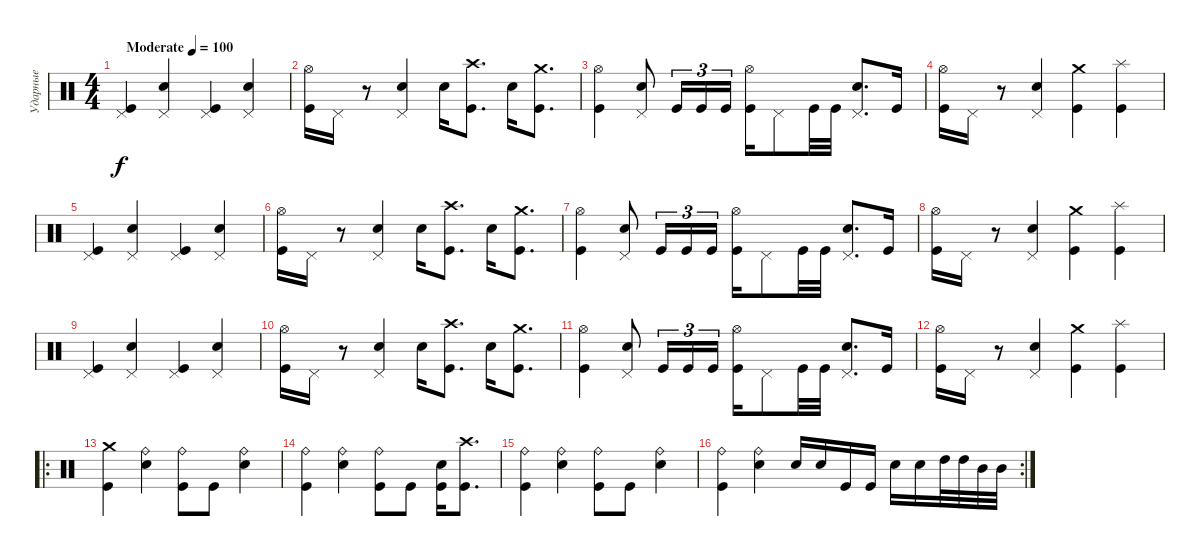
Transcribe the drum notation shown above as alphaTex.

\track ("Ударные" "Ударные") {instrument percussion}
\staff {score}
\articulation defaults
\ts (4 4)
\tempo (100 "Moderate")
\clef neutral
\ks c
("Pedal Hi-Hat (hit)" "Kick (hit)").4{dy f} ("Pedal Hi-Hat (hit)" "Electric Snare (hit)").4 ("Pedal Hi-Hat (hit)" "Kick (hit)").4 ("Pedal Hi-Hat (hit)" "Electric Snare (hit)").4 |
("Hi-Hat (open)" "Kick (hit)").16 "Pedal Hi-Hat (hit)".16 r.8 ("Pedal Hi-Hat (hit)" "Electric Snare (hit)").4 "Electric Snare (hit)".16 ("Crash high (hit)" "Kick (hit)").8{d} "Electric Snare (hit)".16 ("Crash medium (hit)" "Kick (hit)").8{d} |
("Hi-Hat (open)" "Kick (hit)").4 ("Pedal Hi-Hat (hit)" "Electric Snare (hit)").8 "Kick (hit)".16{tu (3 2)} "Kick (hit)".16{tu (3 2)} "Kick (hit)".16{tu (3 2)} ("Hi-Hat (open)" "Kick (hit)").16 "Pedal Hi-Hat (hit)".8 "Kick (hit)".32 "Kick (hit)".32 ("Pedal Hi-Hat (hit)" "Electric Snare (hit)").8{d} "Kick (hit)".16 |
("Hi-Hat (open)" "Kick (hit)").16 "Pedal Hi-Hat (hit)".16 r.8 ("Pedal Hi-Hat (hit)" "Electric Snare (hit)").4 ("Crash medium (hit)" "Kick (hit)").4 ("Splash (hit)" "Kick (hit)").4 |
("Pedal Hi-Hat (hit)" "Kick (hit)").4 ("Pedal Hi-Hat (hit)" "Electric Snare (hit)").4 ("Pedal Hi-Hat (hit)" "Kick (hit)").4 ("Pedal Hi-Hat (hit)" "Electric Snare (hit)").4 |
("Hi-Hat (open)" "Kick (hit)").16 "Pedal Hi-Hat (hit)".16 r.8 ("Pedal Hi-Hat (hit)" "Electric Snare (hit)").4 "Electric Snare (hit)".16 ("Crash high (hit)" "Kick (hit)").8{d} "Electric Snare (hit)".16 ("Crash medium (hit)" "Kick (hit)").8{d} |
("Hi-Hat (open)" "Kick (hit)").4 ("Pedal Hi-Hat (hit)" "Electric Snare (hit)").8 "Kick (hit)".16{tu (3 2)} "Kick (hit)".16{tu (3 2)} "Kick (hit)".16{tu (3 2)} ("Hi-Hat (open)" "Kick (hit)").16 "Pedal Hi-Hat (hit)".8 "Kick (hit)".32 "Kick (hit)".32 ("Pedal Hi-Hat (hit)" "Electric Snare (hit)").8{d} "Kick (hit)".16 |
("Hi-Hat (open)" "Kick (hit)").16 "Pedal Hi-Hat (hit)".16 r.8 ("Pedal Hi-Hat (hit)" "Electric Snare (hit)").4 ("Crash medium (hit)" "Kick (hit)").4 ("Splash (hit)" "Kick (hit)").4 |
("Pedal Hi-Hat (hit)" "Kick (hit)").4 ("Pedal Hi-Hat (hit)" "Electric Snare (hit)").4 ("Pedal Hi-Hat (hit)" "Kick (hit)").4 ("Pedal Hi-Hat (hit)" "Electric Snare (hit)").4 |
("Hi-Hat (open)" "Kick (hit)").16 "Pedal Hi-Hat (hit)".16 r.8 ("Pedal Hi-Hat (hit)" "Electric Snare (hit)").4 "Electric Snare (hit)".16 ("Crash high (hit)" "Kick (hit)").8{d} "Electric Snare (hit)".16 ("Crash medium (hit)" "Kick (hit)").8{d} |
("Hi-Hat (open)" "Kick (hit)").4 ("Pedal Hi-Hat (hit)" "Electric Snare (hit)").8 "Kick (hit)".16{tu (3 2)} "Kick (hit)".16{tu (3 2)} "Kick (hit)".16{tu (3 2)} ("Hi-Hat (open)" "Kick (hit)").16 "Pedal Hi-Hat (hit)".8 "Kick (hit)".32 "Kick (hit)".32 ("Pedal Hi-Hat (hit)" "Electric Snare (hit)").8{d} "Kick (hit)".16 |
("Hi-Hat (open)" "Kick (hit)").16 "Pedal Hi-Hat (hit)".16 r.8 ("Pedal Hi-Hat (hit)" "Electric Snare (hit)").4 ("Crash medium (hit)" "Kick (hit)").4 ("Splash (hit)" "Kick (hit)").4 |
\ro
("Crash medium (hit)" "Kick (hit)").4 ("Ride (bell)" "Electric Snare (hit)").4 ("Ride (bell)" "Kick (hit)").8 "Kick (hit)".8 ("Ride (bell)" "Electric Snare (hit)").4 |
("Ride (bell)" "Kick (hit)").4 ("Ride (bell)" "Electric Snare (hit)").4 ("Ride (bell)" "Kick (hit)").8 "Kick (hit)".8 ("Electric Snare (hit)" "Kick (hit)").16 ("Crash high (hit)" "Kick (hit)").8{d} |
("Ride (bell)" "Kick (hit)").4 ("Ride (bell)" "Electric Snare (hit)").4 ("Ride (bell)" "Kick (hit)").8 "Kick (hit)".8 ("Ride (bell)" "Electric Snare (hit)").4 |
\rc 2
("Ride (bell)" "Kick (hit)").4 ("Ride (bell)" "Electric Snare (hit)").4 "Electric Snare (hit)".16 "Electric Snare (hit)".16 "Kick (hit)".16 "Kick (hit)".16 "Electric Snare (hit)".16 "Electric Snare (hit)".16 "High Tom (hit)".32 "High Tom (hit)".32 "Mid Tom (hit)".32 "Mid Tom (hit)".32
